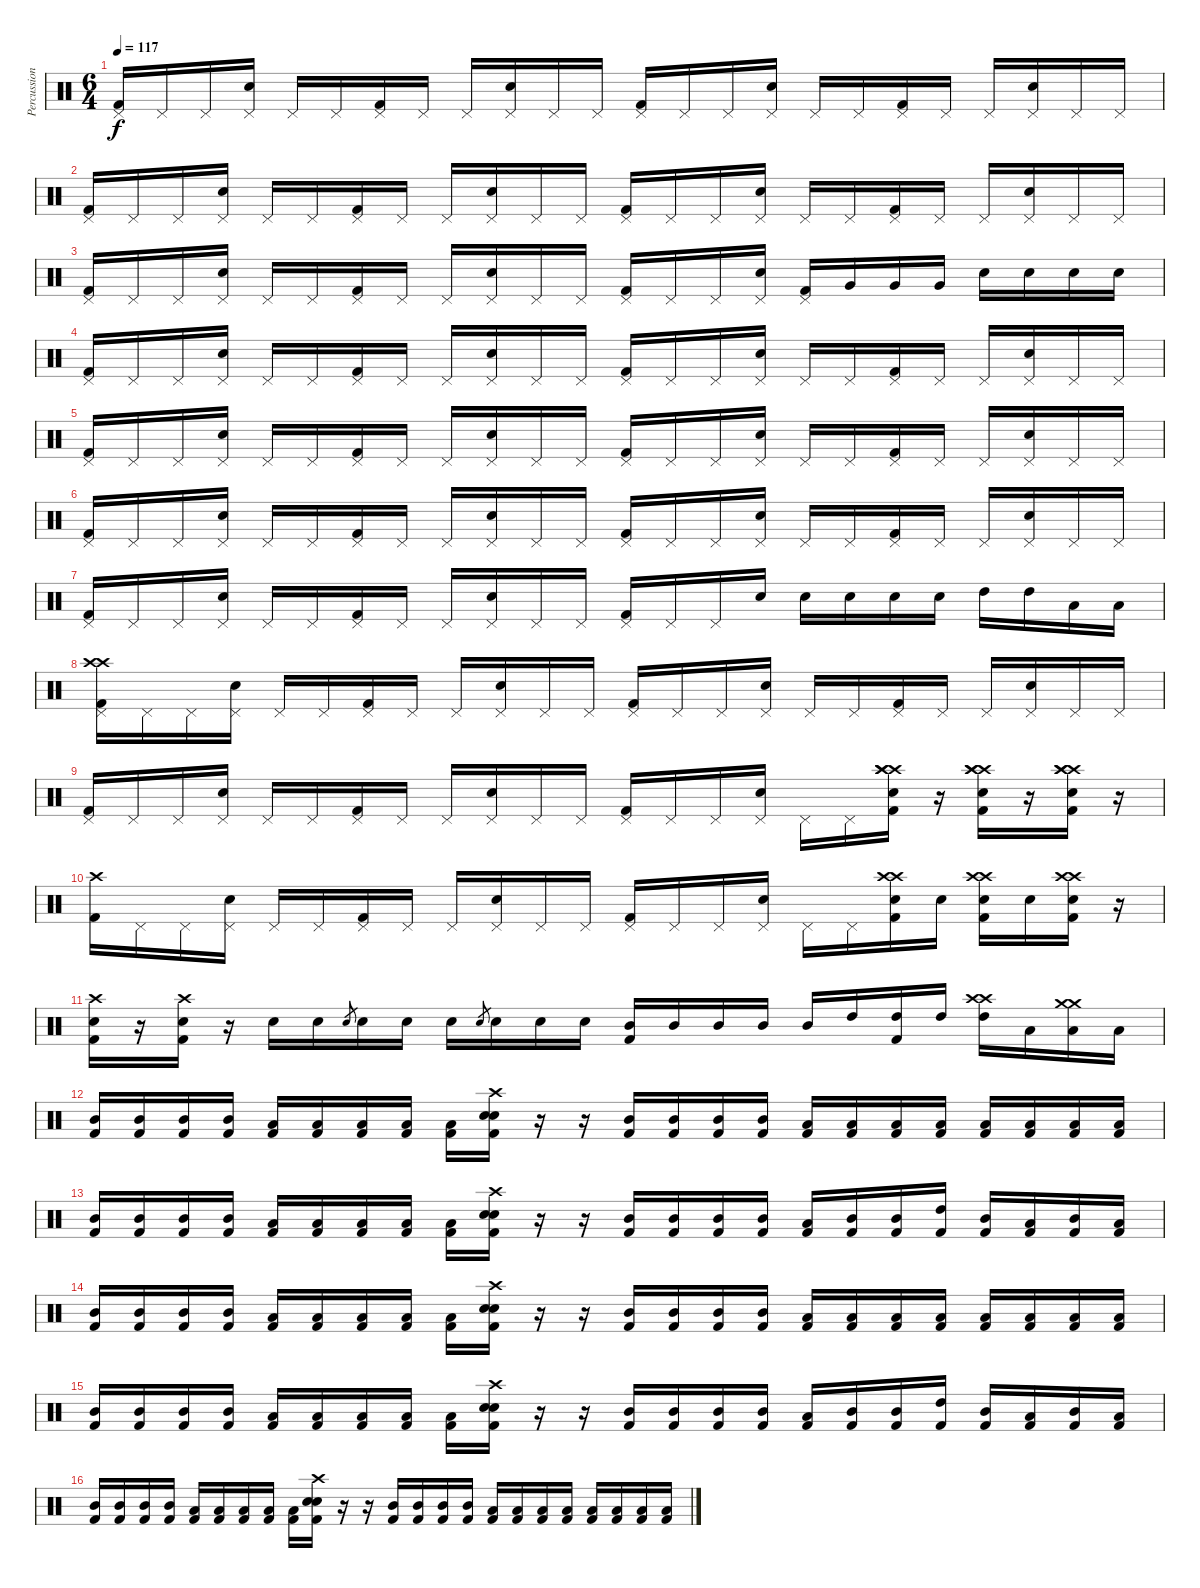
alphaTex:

\track ("Percussions" "Percussion") {instrument percussion}
\staff {score}
\articulation defaults
\ts (6 4)
\tempo 117
\clef neutral
\ks c
("Pedal Hi-Hat (hit)" "Kick (hit) 2").16{dy f} "Pedal Hi-Hat (hit)".16 "Pedal Hi-Hat (hit)".16 ("Pedal Hi-Hat (hit)" "Electric Snare (hit)").16 "Pedal Hi-Hat (hit)".16 "Pedal Hi-Hat (hit)".16 ("Pedal Hi-Hat (hit)" "Kick (hit) 2").16 "Pedal Hi-Hat (hit)".16 "Pedal Hi-Hat (hit)".16 ("Pedal Hi-Hat (hit)" "Electric Snare (hit)").16 "Pedal Hi-Hat (hit)".16 "Pedal Hi-Hat (hit)".16 ("Pedal Hi-Hat (hit)" "Kick (hit) 2").16 "Pedal Hi-Hat (hit)".16 "Pedal Hi-Hat (hit)".16 ("Pedal Hi-Hat (hit)" "Electric Snare (hit)").16 "Pedal Hi-Hat (hit)".16 "Pedal Hi-Hat (hit)".16 ("Pedal Hi-Hat (hit)" "Kick (hit) 2").16 "Pedal Hi-Hat (hit)".16 "Pedal Hi-Hat (hit)".16 ("Pedal Hi-Hat (hit)" "Electric Snare (hit)").16 "Pedal Hi-Hat (hit)".16 "Pedal Hi-Hat (hit)".16 |
("Pedal Hi-Hat (hit)" "Kick (hit) 2").16 "Pedal Hi-Hat (hit)".16 "Pedal Hi-Hat (hit)".16 ("Pedal Hi-Hat (hit)" "Electric Snare (hit)").16 "Pedal Hi-Hat (hit)".16 "Pedal Hi-Hat (hit)".16 ("Pedal Hi-Hat (hit)" "Kick (hit) 2").16 "Pedal Hi-Hat (hit)".16 "Pedal Hi-Hat (hit)".16 ("Pedal Hi-Hat (hit)" "Electric Snare (hit)").16 "Pedal Hi-Hat (hit)".16 "Pedal Hi-Hat (hit)".16 ("Pedal Hi-Hat (hit)" "Kick (hit) 2").16 "Pedal Hi-Hat (hit)".16 "Pedal Hi-Hat (hit)".16 ("Pedal Hi-Hat (hit)" "Electric Snare (hit)").16 "Pedal Hi-Hat (hit)".16 "Pedal Hi-Hat (hit)".16 ("Pedal Hi-Hat (hit)" "Kick (hit) 2").16 "Pedal Hi-Hat (hit)".16 "Pedal Hi-Hat (hit)".16 ("Pedal Hi-Hat (hit)" "Electric Snare (hit)").16 "Pedal Hi-Hat (hit)".16 "Pedal Hi-Hat (hit)".16 |
("Pedal Hi-Hat (hit)" "Kick (hit) 2").16 "Pedal Hi-Hat (hit)".16 "Pedal Hi-Hat (hit)".16 ("Pedal Hi-Hat (hit)" "Electric Snare (hit)").16 "Pedal Hi-Hat (hit)".16 "Pedal Hi-Hat (hit)".16 ("Pedal Hi-Hat (hit)" "Kick (hit) 2").16 "Pedal Hi-Hat (hit)".16 "Pedal Hi-Hat (hit)".16 ("Pedal Hi-Hat (hit)" "Electric Snare (hit)").16 "Pedal Hi-Hat (hit)".16 "Pedal Hi-Hat (hit)".16 ("Pedal Hi-Hat (hit)" "Kick (hit) 2").16 "Pedal Hi-Hat (hit)".16 "Pedal Hi-Hat (hit)".16 ("Pedal Hi-Hat (hit)" "Electric Snare (hit)").16 ("Pedal Hi-Hat (hit)" "Kick (hit) 2").16 "Very Low Tom (hit)".16 "Very Low Tom (hit)".16 "Very Low Tom (hit)".16 "Electric Snare (hit)".16 "Electric Snare (hit)".16 "Electric Snare (hit)".16 "Electric Snare (hit)".16 |
("Pedal Hi-Hat (hit)" "Kick (hit) 2").16 "Pedal Hi-Hat (hit)".16 "Pedal Hi-Hat (hit)".16 ("Pedal Hi-Hat (hit)" "Electric Snare (hit)").16 "Pedal Hi-Hat (hit)".16 "Pedal Hi-Hat (hit)".16 ("Pedal Hi-Hat (hit)" "Kick (hit) 2").16 "Pedal Hi-Hat (hit)".16 "Pedal Hi-Hat (hit)".16 ("Pedal Hi-Hat (hit)" "Electric Snare (hit)").16 "Pedal Hi-Hat (hit)".16 "Pedal Hi-Hat (hit)".16 ("Pedal Hi-Hat (hit)" "Kick (hit) 2").16 "Pedal Hi-Hat (hit)".16 "Pedal Hi-Hat (hit)".16 ("Pedal Hi-Hat (hit)" "Electric Snare (hit)").16 "Pedal Hi-Hat (hit)".16 "Pedal Hi-Hat (hit)".16 ("Pedal Hi-Hat (hit)" "Kick (hit) 2").16 "Pedal Hi-Hat (hit)".16 "Pedal Hi-Hat (hit)".16 ("Pedal Hi-Hat (hit)" "Electric Snare (hit)").16 "Pedal Hi-Hat (hit)".16 "Pedal Hi-Hat (hit)".16 |
("Pedal Hi-Hat (hit)" "Kick (hit) 2").16 "Pedal Hi-Hat (hit)".16 "Pedal Hi-Hat (hit)".16 ("Pedal Hi-Hat (hit)" "Electric Snare (hit)").16 "Pedal Hi-Hat (hit)".16 "Pedal Hi-Hat (hit)".16 ("Pedal Hi-Hat (hit)" "Kick (hit) 2").16 "Pedal Hi-Hat (hit)".16 "Pedal Hi-Hat (hit)".16 ("Pedal Hi-Hat (hit)" "Electric Snare (hit)").16 "Pedal Hi-Hat (hit)".16 "Pedal Hi-Hat (hit)".16 ("Pedal Hi-Hat (hit)" "Kick (hit) 2").16 "Pedal Hi-Hat (hit)".16 "Pedal Hi-Hat (hit)".16 ("Pedal Hi-Hat (hit)" "Electric Snare (hit)").16 "Pedal Hi-Hat (hit)".16 "Pedal Hi-Hat (hit)".16 ("Pedal Hi-Hat (hit)" "Kick (hit) 2").16 "Pedal Hi-Hat (hit)".16 "Pedal Hi-Hat (hit)".16 ("Pedal Hi-Hat (hit)" "Electric Snare (hit)").16 "Pedal Hi-Hat (hit)".16 "Pedal Hi-Hat (hit)".16 |
("Pedal Hi-Hat (hit)" "Kick (hit) 2").16 "Pedal Hi-Hat (hit)".16 "Pedal Hi-Hat (hit)".16 ("Pedal Hi-Hat (hit)" "Electric Snare (hit)").16 "Pedal Hi-Hat (hit)".16 "Pedal Hi-Hat (hit)".16 ("Pedal Hi-Hat (hit)" "Kick (hit) 2").16 "Pedal Hi-Hat (hit)".16 "Pedal Hi-Hat (hit)".16 ("Pedal Hi-Hat (hit)" "Electric Snare (hit)").16 "Pedal Hi-Hat (hit)".16 "Pedal Hi-Hat (hit)".16 ("Pedal Hi-Hat (hit)" "Kick (hit) 2").16 "Pedal Hi-Hat (hit)".16 "Pedal Hi-Hat (hit)".16 ("Pedal Hi-Hat (hit)" "Electric Snare (hit)").16 "Pedal Hi-Hat (hit)".16 "Pedal Hi-Hat (hit)".16 ("Pedal Hi-Hat (hit)" "Kick (hit) 2").16 "Pedal Hi-Hat (hit)".16 "Pedal Hi-Hat (hit)".16 ("Pedal Hi-Hat (hit)" "Electric Snare (hit)").16 "Pedal Hi-Hat (hit)".16 "Pedal Hi-Hat (hit)".16 |
("Pedal Hi-Hat (hit)" "Kick (hit) 2").16 "Pedal Hi-Hat (hit)".16 "Pedal Hi-Hat (hit)".16 ("Pedal Hi-Hat (hit)" "Electric Snare (hit)").16 "Pedal Hi-Hat (hit)".16 "Pedal Hi-Hat (hit)".16 ("Pedal Hi-Hat (hit)" "Kick (hit) 2").16 "Pedal Hi-Hat (hit)".16 "Pedal Hi-Hat (hit)".16 ("Pedal Hi-Hat (hit)" "Electric Snare (hit)").16 "Pedal Hi-Hat (hit)".16 "Pedal Hi-Hat (hit)".16 ("Pedal Hi-Hat (hit)" "Kick (hit) 2").16 "Pedal Hi-Hat (hit)".16 "Pedal Hi-Hat (hit)".16 "Electric Snare (hit)".16 "Electric Snare (hit)".16 "Electric Snare (hit)".16 "Electric Snare (hit)".16 "Electric Snare (hit)".16 "High Tom (hit)".16 "High Tom (hit)".16 "Low Tom (hit)".16 "Low Tom (hit)".16 |
("Crash high (hit)" "Crash high (hit)" "Pedal Hi-Hat (hit)" "Kick (hit) 2").16 "Pedal Hi-Hat (hit)".16 "Pedal Hi-Hat (hit)".16 ("Pedal Hi-Hat (hit)" "Electric Snare (hit)").16 "Pedal Hi-Hat (hit)".16 "Pedal Hi-Hat (hit)".16 ("Pedal Hi-Hat (hit)" "Kick (hit) 2").16 "Pedal Hi-Hat (hit)".16 "Pedal Hi-Hat (hit)".16 ("Pedal Hi-Hat (hit)" "Electric Snare (hit)").16 "Pedal Hi-Hat (hit)".16 "Pedal Hi-Hat (hit)".16 ("Pedal Hi-Hat (hit)" "Kick (hit) 2").16 "Pedal Hi-Hat (hit)".16 "Pedal Hi-Hat (hit)".16 ("Pedal Hi-Hat (hit)" "Electric Snare (hit)").16 "Pedal Hi-Hat (hit)".16 "Pedal Hi-Hat (hit)".16 ("Pedal Hi-Hat (hit)" "Kick (hit) 2").16 "Pedal Hi-Hat (hit)".16 "Pedal Hi-Hat (hit)".16 ("Pedal Hi-Hat (hit)" "Electric Snare (hit)").16 "Pedal Hi-Hat (hit)".16 "Pedal Hi-Hat (hit)".16 |
("Pedal Hi-Hat (hit)" "Kick (hit) 2").16 "Pedal Hi-Hat (hit)".16 "Pedal Hi-Hat (hit)".16 ("Pedal Hi-Hat (hit)" "Electric Snare (hit)").16 "Pedal Hi-Hat (hit)".16 "Pedal Hi-Hat (hit)".16 ("Pedal Hi-Hat (hit)" "Kick (hit) 2").16 "Pedal Hi-Hat (hit)".16 "Pedal Hi-Hat (hit)".16 ("Pedal Hi-Hat (hit)" "Electric Snare (hit)").16 "Pedal Hi-Hat (hit)".16 "Pedal Hi-Hat (hit)".16 ("Pedal Hi-Hat (hit)" "Kick (hit) 2").16 "Pedal Hi-Hat (hit)".16 "Pedal Hi-Hat (hit)".16 ("Pedal Hi-Hat (hit)" "Electric Snare (hit)").16 "Pedal Hi-Hat (hit)".16 "Pedal Hi-Hat (hit)".16 ("Crash high (hit)" "Crash high (hit)" "Crash high (hit)" "Electric Snare (hit)" "Kick (hit) 2").16 r.16 ("Crash high (hit)" "Crash high (hit)" "Crash high (hit)" "Electric Snare (hit)" "Kick (hit) 2").16 r.16 ("Crash high (hit)" "Crash high (hit)" "Crash high (hit)" "Electric Snare (hit)" "Kick (hit) 2").16 r.16 |
("Crash high (hit)" "Kick (hit) 2").16 "Pedal Hi-Hat (hit)".16 "Pedal Hi-Hat (hit)".16 ("Pedal Hi-Hat (hit)" "Electric Snare (hit)").16 "Pedal Hi-Hat (hit)".16 "Pedal Hi-Hat (hit)".16 ("Pedal Hi-Hat (hit)" "Kick (hit) 2").16 "Pedal Hi-Hat (hit)".16 "Pedal Hi-Hat (hit)".16 ("Pedal Hi-Hat (hit)" "Electric Snare (hit)").16 "Pedal Hi-Hat (hit)".16 "Pedal Hi-Hat (hit)".16 ("Pedal Hi-Hat (hit)" "Kick (hit) 2").16 "Pedal Hi-Hat (hit)".16 "Pedal Hi-Hat (hit)".16 ("Pedal Hi-Hat (hit)" "Electric Snare (hit)").16 "Pedal Hi-Hat (hit)".16 "Pedal Hi-Hat (hit)".16 ("Crash high (hit)" "Crash high (hit)" "Electric Snare (hit)" "Kick (hit) 2").16 "Electric Snare (hit)".16 ("Crash high (hit)" "Crash high (hit)" "Electric Snare (hit)" "Kick (hit) 2").16 "Electric Snare (hit)".16 ("Crash high (hit)" "Crash high (hit)" "Electric Snare (hit)" "Kick (hit) 2").16 r.16 |
("Crash high (hit)" "Electric Snare (hit)" "Kick (hit) 2").16 r.16 ("Crash high (hit)" "Electric Snare (hit)" "Kick (hit) 2").16 r.16 "Electric Snare (hit)".16 "Electric Snare (hit)".16 "Electric Snare (hit)".8{gr} "Electric Snare (hit)".16 "Electric Snare (hit)".16 "Electric Snare (hit)".16 "Electric Snare (hit)".8{gr} "Electric Snare (hit)".16 "Electric Snare (hit)".16 "Electric Snare (hit)".16 ("Mid Tom (hit)" "Kick (hit) 2").16 "Mid Tom (hit)".16 "Mid Tom (hit)".16 "Mid Tom (hit)".16 "Mid Tom (hit)".16 "High Tom (hit)".16 ("High Tom (hit)" "Kick (hit) 2").16 "High Tom (hit)".16 ("Crash high (hit)" "Crash high (hit)" "High Tom (hit)").16 "Low Tom (hit)".16 ("Crash medium (hit)" "Crash medium (hit)" "Low Tom (hit)").16 "Low Tom (hit)".16 |
("Mid Tom (hit)" "Kick (hit) 2").16 ("Mid Tom (hit)" "Kick (hit) 2").16 ("Mid Tom (hit)" "Kick (hit) 2").16 ("Mid Tom (hit)" "Kick (hit) 2").16 ("Low Tom (hit)" "Kick (hit) 2").16 ("Low Tom (hit)" "Kick (hit) 2").16 ("Low Tom (hit)" "Kick (hit) 2").16 ("Low Floor Tom (hit)" "Kick (hit) 2").16 ("Low Floor Tom (hit)" "Kick (hit) 2").16 ("Crash high (hit)" "Electric Snare (hit)" "Electric Snare (hit)" "Kick (hit) 2").16 r.16 r.16 ("Mid Tom (hit)" "Kick (hit) 2").16 ("Mid Tom (hit)" "Kick (hit) 2").16 ("Mid Tom (hit)" "Kick (hit) 2").16 ("Mid Tom (hit)" "Kick (hit) 2").16 ("Low Tom (hit)" "Kick (hit) 2").16 ("Low Tom (hit)" "Kick (hit) 2").16 ("Low Tom (hit)" "Kick (hit) 2").16 ("Low Floor Tom (hit)" "Kick (hit) 2").16 ("Low Floor Tom (hit)" "Kick (hit) 2").16 ("Low Floor Tom (hit)" "Kick (hit) 2").16 ("Low Floor Tom (hit)" "Kick (hit) 2").16 ("Low Floor Tom (hit)" "Kick (hit) 2").16 |
("Mid Tom (hit)" "Kick (hit) 2").16 ("Mid Tom (hit)" "Kick (hit) 2").16 ("Mid Tom (hit)" "Kick (hit) 2").16 ("Mid Tom (hit)" "Kick (hit) 2").16 ("Low Tom (hit)" "Kick (hit) 2").16 ("Low Tom (hit)" "Kick (hit) 2").16 ("Low Tom (hit)" "Kick (hit) 2").16 ("Low Floor Tom (hit)" "Kick (hit) 2").16 ("Low Floor Tom (hit)" "Kick (hit) 2").16 ("Crash high (hit)" "Electric Snare (hit)" "Electric Snare (hit)" "Kick (hit) 2").16 r.16 r.16 ("Mid Tom (hit)" "Kick (hit) 2").16 ("Mid Tom (hit)" "Kick (hit) 2").16 ("Mid Tom (hit)" "Kick (hit) 2").16 ("Mid Tom (hit)" "Kick (hit) 2").16 ("Low Tom (hit)" "Kick (hit) 2").16 ("Mid Tom (hit)" "Kick (hit) 2").16 ("Mid Tom (hit)" "Kick (hit) 2").16 ("High Tom (hit)" "Kick (hit) 2").16 ("Mid Tom (hit)" "Kick (hit) 2").16 ("Low Tom (hit)" "Kick (hit) 2").16 ("Mid Tom (hit)" "Kick (hit) 2").16 ("Low Tom (hit)" "Kick (hit) 2").16 |
("Mid Tom (hit)" "Kick (hit) 2").16 ("Mid Tom (hit)" "Kick (hit) 2").16 ("Mid Tom (hit)" "Kick (hit) 2").16 ("Mid Tom (hit)" "Kick (hit) 2").16 ("Low Tom (hit)" "Kick (hit) 2").16 ("Low Tom (hit)" "Kick (hit) 2").16 ("Low Tom (hit)" "Kick (hit) 2").16 ("Low Floor Tom (hit)" "Kick (hit) 2").16 ("Low Floor Tom (hit)" "Kick (hit) 2").16 ("Crash high (hit)" "Electric Snare (hit)" "Electric Snare (hit)" "Kick (hit) 2").16 r.16 r.16 ("Mid Tom (hit)" "Kick (hit) 2").16 ("Mid Tom (hit)" "Kick (hit) 2").16 ("Mid Tom (hit)" "Kick (hit) 2").16 ("Mid Tom (hit)" "Kick (hit) 2").16 ("Low Tom (hit)" "Kick (hit) 2").16 ("Low Tom (hit)" "Kick (hit) 2").16 ("Low Tom (hit)" "Kick (hit) 2").16 ("Low Floor Tom (hit)" "Kick (hit) 2").16 ("Low Floor Tom (hit)" "Kick (hit) 2").16 ("Low Floor Tom (hit)" "Kick (hit) 2").16 ("Low Floor Tom (hit)" "Kick (hit) 2").16 ("Low Floor Tom (hit)" "Kick (hit) 2").16 |
("Mid Tom (hit)" "Kick (hit) 2").16 ("Mid Tom (hit)" "Kick (hit) 2").16 ("Mid Tom (hit)" "Kick (hit) 2").16 ("Mid Tom (hit)" "Kick (hit) 2").16 ("Low Tom (hit)" "Kick (hit) 2").16 ("Low Tom (hit)" "Kick (hit) 2").16 ("Low Tom (hit)" "Kick (hit) 2").16 ("Low Floor Tom (hit)" "Kick (hit) 2").16 ("Low Floor Tom (hit)" "Kick (hit) 2").16 ("Crash high (hit)" "Electric Snare (hit)" "Electric Snare (hit)" "Kick (hit) 2").16 r.16 r.16 ("Mid Tom (hit)" "Kick (hit) 2").16 ("Mid Tom (hit)" "Kick (hit) 2").16 ("Mid Tom (hit)" "Kick (hit) 2").16 ("Mid Tom (hit)" "Kick (hit) 2").16 ("Low Tom (hit)" "Kick (hit) 2").16 ("Mid Tom (hit)" "Kick (hit) 2").16 ("Mid Tom (hit)" "Kick (hit) 2").16 ("High Tom (hit)" "Kick (hit) 2").16 ("Mid Tom (hit)" "Kick (hit) 2").16 ("Low Tom (hit)" "Kick (hit) 2").16 ("Mid Tom (hit)" "Kick (hit) 2").16 ("Low Tom (hit)" "Kick (hit) 2").16 |
("Mid Tom (hit)" "Kick (hit) 2").16 ("Mid Tom (hit)" "Kick (hit) 2").16 ("Mid Tom (hit)" "Kick (hit) 2").16 ("Mid Tom (hit)" "Kick (hit) 2").16 ("Low Tom (hit)" "Kick (hit) 2").16 ("Low Tom (hit)" "Kick (hit) 2").16 ("Low Tom (hit)" "Kick (hit) 2").16 ("Low Floor Tom (hit)" "Kick (hit) 2").16 ("Low Floor Tom (hit)" "Kick (hit) 2").16 ("Crash high (hit)" "Electric Snare (hit)" "Electric Snare (hit)" "Kick (hit) 2").16 r.16 r.16 ("Mid Tom (hit)" "Kick (hit) 2").16 ("Mid Tom (hit)" "Kick (hit) 2").16 ("Mid Tom (hit)" "Kick (hit) 2").16 ("Mid Tom (hit)" "Kick (hit) 2").16 ("Low Tom (hit)" "Kick (hit) 2").16 ("Low Tom (hit)" "Kick (hit) 2").16 ("Low Tom (hit)" "Kick (hit) 2").16 ("Low Floor Tom (hit)" "Kick (hit) 2").16 ("Low Floor Tom (hit)" "Kick (hit) 2").16 ("Low Floor Tom (hit)" "Kick (hit) 2").16 ("Low Floor Tom (hit)" "Kick (hit) 2").16 ("Low Floor Tom (hit)" "Kick (hit) 2").16
